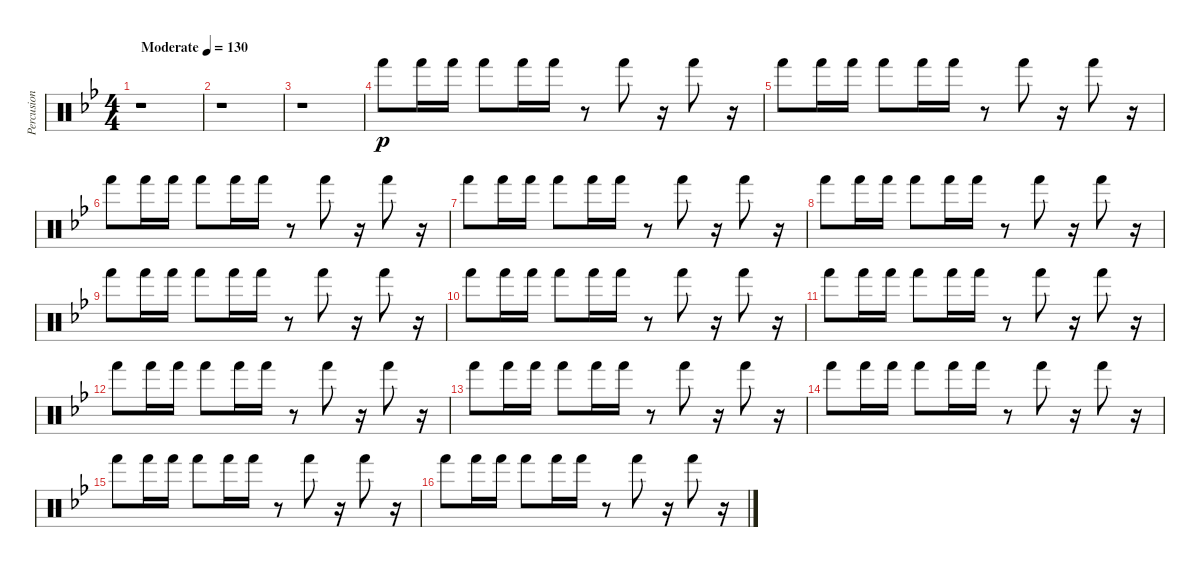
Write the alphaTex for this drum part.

\track ("Percusion III" "Percusion ") {instrument percussion}
\staff {score}
\articulation defaults
\ts (4 4)
\tempo (130 "Moderate")
\clef neutral
\ks gminor
r.1{dy p} |
r.1 |
r.1 |
"Hand (hit)".8 "Hand (hit)".16 "Hand (hit)".16 "Hand (hit)".8 "Hand (hit)".16 "Hand (hit)".16 r.8 "Hand (hit)".8 r.16 "Hand (hit)".8 r.16 |
"Hand (hit)".8 "Hand (hit)".16 "Hand (hit)".16 "Hand (hit)".8 "Hand (hit)".16 "Hand (hit)".16 r.8 "Hand (hit)".8 r.16 "Hand (hit)".8 r.16 |
"Hand (hit)".8 "Hand (hit)".16 "Hand (hit)".16 "Hand (hit)".8 "Hand (hit)".16 "Hand (hit)".16 r.8 "Hand (hit)".8 r.16 "Hand (hit)".8 r.16 |
"Hand (hit)".8 "Hand (hit)".16 "Hand (hit)".16 "Hand (hit)".8 "Hand (hit)".16 "Hand (hit)".16 r.8 "Hand (hit)".8 r.16 "Hand (hit)".8 r.16 |
"Hand (hit)".8 "Hand (hit)".16 "Hand (hit)".16 "Hand (hit)".8 "Hand (hit)".16 "Hand (hit)".16 r.8 "Hand (hit)".8 r.16 "Hand (hit)".8 r.16 |
"Hand (hit)".8 "Hand (hit)".16 "Hand (hit)".16 "Hand (hit)".8 "Hand (hit)".16 "Hand (hit)".16 r.8 "Hand (hit)".8 r.16 "Hand (hit)".8 r.16 |
"Hand (hit)".8 "Hand (hit)".16 "Hand (hit)".16 "Hand (hit)".8 "Hand (hit)".16 "Hand (hit)".16 r.8 "Hand (hit)".8 r.16 "Hand (hit)".8 r.16 |
"Hand (hit)".8 "Hand (hit)".16 "Hand (hit)".16 "Hand (hit)".8 "Hand (hit)".16 "Hand (hit)".16 r.8 "Hand (hit)".8 r.16 "Hand (hit)".8 r.16 |
"Hand (hit)".8 "Hand (hit)".16 "Hand (hit)".16 "Hand (hit)".8 "Hand (hit)".16 "Hand (hit)".16 r.8 "Hand (hit)".8 r.16 "Hand (hit)".8 r.16 |
"Hand (hit)".8 "Hand (hit)".16 "Hand (hit)".16 "Hand (hit)".8 "Hand (hit)".16 "Hand (hit)".16 r.8 "Hand (hit)".8 r.16 "Hand (hit)".8 r.16 |
"Hand (hit)".8 "Hand (hit)".16 "Hand (hit)".16 "Hand (hit)".8 "Hand (hit)".16 "Hand (hit)".16 r.8 "Hand (hit)".8 r.16 "Hand (hit)".8 r.16 |
"Hand (hit)".8 "Hand (hit)".16 "Hand (hit)".16 "Hand (hit)".8 "Hand (hit)".16 "Hand (hit)".16 r.8 "Hand (hit)".8 r.16 "Hand (hit)".8 r.16 |
"Hand (hit)".8 "Hand (hit)".16 "Hand (hit)".16 "Hand (hit)".8 "Hand (hit)".16 "Hand (hit)".16 r.8 "Hand (hit)".8 r.16 "Hand (hit)".8 r.16
